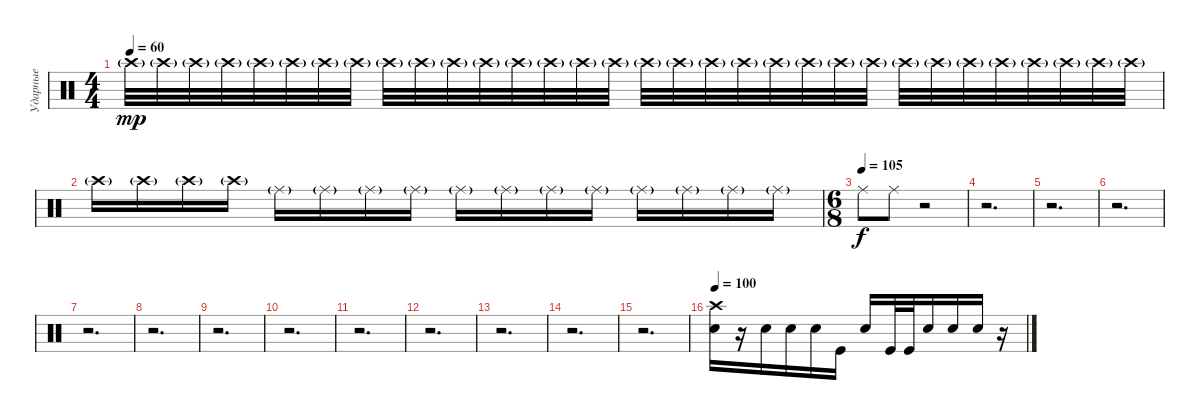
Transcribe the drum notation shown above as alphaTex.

\track ("Ударные" "Ударные") {instrument percussion}
\staff {score}
\articulation defaults
\ts (4 4)
\tempo 60
\clef neutral
\ks c "Crash high (hit)"{g}.32{dy mp} "Crash high (hit)"{g}.32 "Crash high (hit)"{g}.32 "Crash high (hit)"{g}.32 "Crash high (hit)"{g}.32 "Crash high (hit)"{g}.32 "Crash high (hit)"{g}.32 "Crash high (hit)"{g}.32 "Crash high (hit)"{g}.32 "Crash high (hit)"{g}.32 "Crash high (hit)"{g}.32 "Crash high (hit)"{g}.32 "Crash high (hit)"{g}.32 "Crash high (hit)"{g}.32 "Crash high (hit)"{g}.32 "Crash high (hit)"{g}.32 "Crash high (hit)"{g}.32 "Crash high (hit)"{g}.32 "Crash high (hit)"{g}.32 "Crash high (hit)"{g}.32 "Crash high (hit)"{g}.32 "Crash high (hit)"{g}.32 "Crash high (hit)"{g}.32 "Crash high (hit)"{g}.32 "Crash high (hit)"{g}.32 "Crash high (hit)"{g}.32 "Crash high (hit)"{g}.32 "Crash high (hit)"{g}.32 "Crash high (hit)"{g}.32 "Crash high (hit)"{g}.32 "Crash high (hit)"{g}.32 "Crash high (hit)"{g}.32
|
"Crash high (hit)"{g}.16 "Crash high (hit)"{g}.16 "Crash high (hit)"{g}.16 "Crash high (hit)"{g}.16 "Ride (middle)"{g}.16 "Ride (middle)"{g}.16 "Ride (middle)"{g}.16 "Ride (middle)"{g}.16 "Ride (middle)"{g}.16 "Ride (middle)"{g}.16 "Ride (middle)"{g}.16 "Ride (middle)"{g}.16 "Ride (middle)"{g}.16 "Ride (middle)"{g}.16 "Ride (middle)"{g}.16 "Ride (middle)"{g}.16 |
\ts (6 8)
\tempo (105)
"Ride (middle)".8{dy f} "Ride (middle)".8 r.2 |
r.2{d} |
r.2{d} |
r.2{d} |
r.2{d} |
r.2{d} |
r.2{d} |
r.2{d} |
r.2{d} |
r.2{d} |
r.2{d} |
r.2{d} |
r.2{d} |
\tempo 100
("Crash high (hit)" "Snare (hit) 2").16 r.16 "Snare (hit) 2".16 "Snare (hit) 2".16 "Snare (hit) 2".16 "Kick (hit)".16 "Snare (hit) 2".16 "Kick (hit)".32 "Kick (hit)".32 "Snare (hit) 2".16 "Snare (hit) 2".16 "Snare (hit) 2".16 r.16
